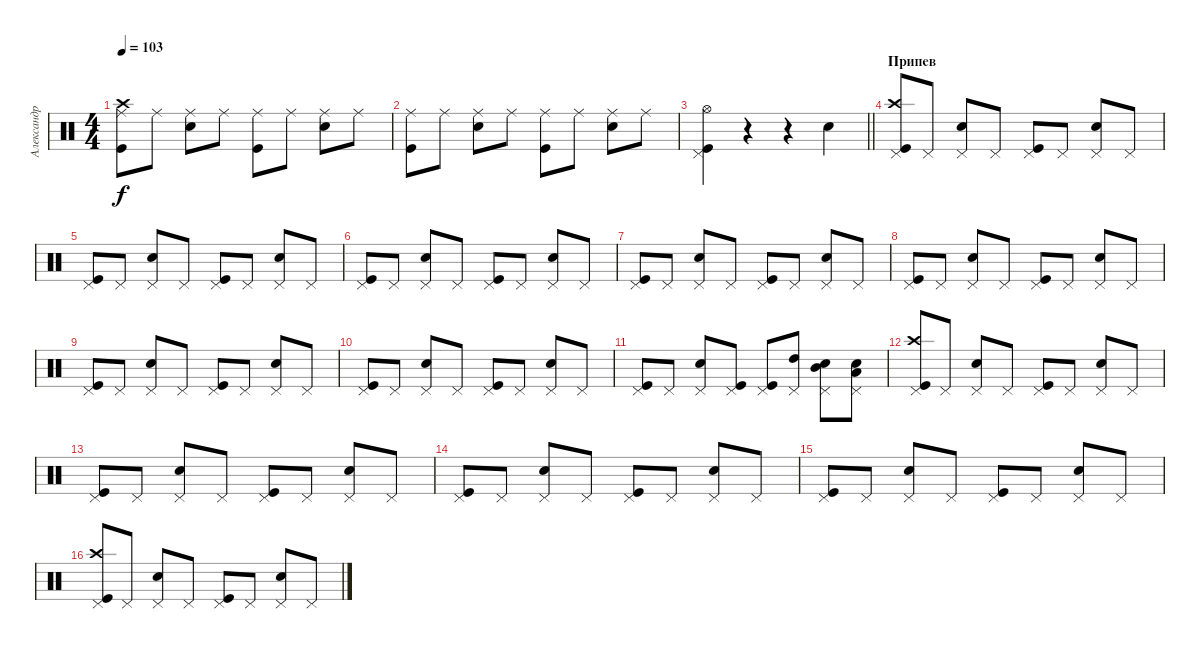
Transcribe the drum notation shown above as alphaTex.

\track ("Александр Ерохин (ударные)" "Александр ") {instrument percussion}
\staff {score}
\articulation defaults
\ts (4 4)
\tempo 103
\clef neutral
\ks c
("Kick (hit)" "Ride (middle)" "Crash high (hit)").8{dy f} "Ride (middle)".8 ("Ride (middle)" "Snare (hit) 2").8 "Ride (middle)".8 ("Kick (hit)" "Ride (middle)").8 "Ride (middle)".8 ("Ride (middle)" "Snare (hit) 2").8 "Ride (middle)".8 |
("Kick (hit)" "Ride (middle)").8 "Ride (middle)".8 ("Ride (middle)" "Snare (hit) 2").8 "Ride (middle)".8 ("Kick (hit)" "Ride (middle)").8 "Ride (middle)".8 ("Ride (middle)" "Snare (hit) 2").8 "Ride (middle)".8 |
\barLineRight lightlight
("Kick (hit)" "Pedal Hi-Hat (hit)" "Hi-Hat (open)").4 r.4 r.4 "Snare (hit) 2".4 |
\section ("" "Припев")
("Kick (hit)" "Pedal Hi-Hat (hit)" "Crash high (hit)").8 "Pedal Hi-Hat (hit)".8 ("Pedal Hi-Hat (hit)" "Snare (hit) 2").8 "Pedal Hi-Hat (hit)".8 ("Kick (hit)" "Pedal Hi-Hat (hit)").8 "Pedal Hi-Hat (hit)".8 ("Pedal Hi-Hat (hit)" "Snare (hit) 2").8 "Pedal Hi-Hat (hit)".8 |
("Kick (hit)" "Pedal Hi-Hat (hit)").8 "Pedal Hi-Hat (hit)".8 ("Pedal Hi-Hat (hit)" "Snare (hit) 2").8 "Pedal Hi-Hat (hit)".8 ("Kick (hit)" "Pedal Hi-Hat (hit)").8 "Pedal Hi-Hat (hit)".8 ("Pedal Hi-Hat (hit)" "Snare (hit) 2").8 "Pedal Hi-Hat (hit)".8 |
("Kick (hit)" "Pedal Hi-Hat (hit)").8 "Pedal Hi-Hat (hit)".8 ("Pedal Hi-Hat (hit)" "Snare (hit) 2").8 "Pedal Hi-Hat (hit)".8 ("Kick (hit)" "Pedal Hi-Hat (hit)").8 "Pedal Hi-Hat (hit)".8 ("Pedal Hi-Hat (hit)" "Snare (hit) 2").8 "Pedal Hi-Hat (hit)".8 |
("Kick (hit)" "Pedal Hi-Hat (hit)").8 "Pedal Hi-Hat (hit)".8 ("Pedal Hi-Hat (hit)" "Snare (hit) 2").8 "Pedal Hi-Hat (hit)".8 ("Kick (hit)" "Pedal Hi-Hat (hit)").8 "Pedal Hi-Hat (hit)".8 ("Pedal Hi-Hat (hit)" "Snare (hit) 2").8 "Pedal Hi-Hat (hit)".8 |
("Kick (hit)" "Pedal Hi-Hat (hit)").8 "Pedal Hi-Hat (hit)".8 ("Pedal Hi-Hat (hit)" "Snare (hit) 2").8 "Pedal Hi-Hat (hit)".8 ("Kick (hit)" "Pedal Hi-Hat (hit)").8 "Pedal Hi-Hat (hit)".8 ("Pedal Hi-Hat (hit)" "Snare (hit) 2").8 "Pedal Hi-Hat (hit)".8 |
("Kick (hit)" "Pedal Hi-Hat (hit)").8 "Pedal Hi-Hat (hit)".8 ("Pedal Hi-Hat (hit)" "Snare (hit) 2").8 "Pedal Hi-Hat (hit)".8 ("Kick (hit)" "Pedal Hi-Hat (hit)").8 "Pedal Hi-Hat (hit)".8 ("Pedal Hi-Hat (hit)" "Snare (hit) 2").8 "Pedal Hi-Hat (hit)".8 |
("Kick (hit)" "Pedal Hi-Hat (hit)").8 "Pedal Hi-Hat (hit)".8 ("Pedal Hi-Hat (hit)" "Snare (hit) 2").8 "Pedal Hi-Hat (hit)".8 ("Kick (hit)" "Pedal Hi-Hat (hit)").8 "Pedal Hi-Hat (hit)".8 ("Pedal Hi-Hat (hit)" "Snare (hit) 2").8 "Pedal Hi-Hat (hit)".8 |
("Kick (hit)" "Pedal Hi-Hat (hit)").8 "Pedal Hi-Hat (hit)".8 ("Pedal Hi-Hat (hit)" "Snare (hit) 2").8 ("Kick (hit)" "Pedal Hi-Hat (hit)").8 ("Kick (hit)" "Pedal Hi-Hat (hit)").8 ("Pedal Hi-Hat (hit)" "High Tom (hit)").8 ("Pedal Hi-Hat (hit)" "Snare (hit) 2" "Mid Tom (hit)").8 ("Pedal Hi-Hat (hit)" "Snare (hit) 2" "Low Tom (hit)").8 |
("Kick (hit)" "Pedal Hi-Hat (hit)" "Crash high (hit)").8 "Pedal Hi-Hat (hit)".8 ("Pedal Hi-Hat (hit)" "Snare (hit) 2").8 "Pedal Hi-Hat (hit)".8 ("Kick (hit)" "Pedal Hi-Hat (hit)").8 "Pedal Hi-Hat (hit)".8 ("Pedal Hi-Hat (hit)" "Snare (hit) 2").8 "Pedal Hi-Hat (hit)".8 |
("Kick (hit)" "Pedal Hi-Hat (hit)").8 "Pedal Hi-Hat (hit)".8 ("Pedal Hi-Hat (hit)" "Snare (hit) 2").8 "Pedal Hi-Hat (hit)".8 ("Kick (hit)" "Pedal Hi-Hat (hit)").8 "Pedal Hi-Hat (hit)".8 ("Pedal Hi-Hat (hit)" "Snare (hit) 2").8 "Pedal Hi-Hat (hit)".8 |
("Kick (hit)" "Pedal Hi-Hat (hit)").8 "Pedal Hi-Hat (hit)".8 ("Pedal Hi-Hat (hit)" "Snare (hit) 2").8 "Pedal Hi-Hat (hit)".8 ("Kick (hit)" "Pedal Hi-Hat (hit)").8 "Pedal Hi-Hat (hit)".8 ("Pedal Hi-Hat (hit)" "Snare (hit) 2").8 "Pedal Hi-Hat (hit)".8 |
("Kick (hit)" "Pedal Hi-Hat (hit)").8 "Pedal Hi-Hat (hit)".8 ("Pedal Hi-Hat (hit)" "Snare (hit) 2").8 "Pedal Hi-Hat (hit)".8 ("Kick (hit)" "Pedal Hi-Hat (hit)").8 "Pedal Hi-Hat (hit)".8 ("Pedal Hi-Hat (hit)" "Snare (hit) 2").8 "Pedal Hi-Hat (hit)".8 |
("Kick (hit)" "Pedal Hi-Hat (hit)" "Crash high (hit)").8 "Pedal Hi-Hat (hit)".8 ("Pedal Hi-Hat (hit)" "Snare (hit) 2").8 "Pedal Hi-Hat (hit)".8 ("Kick (hit)" "Pedal Hi-Hat (hit)").8 "Pedal Hi-Hat (hit)".8 ("Pedal Hi-Hat (hit)" "Snare (hit) 2").8 "Pedal Hi-Hat (hit)".8
